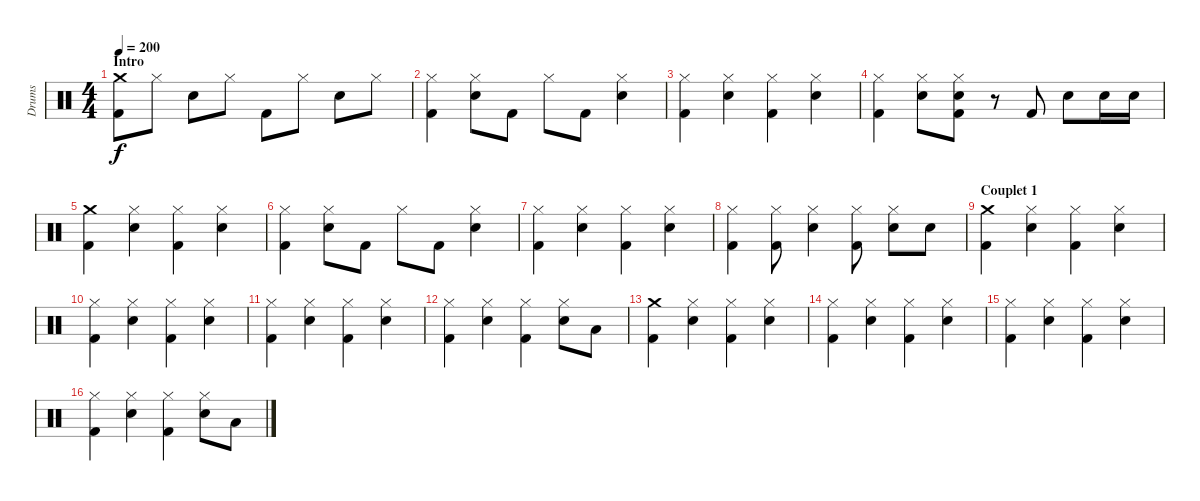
\track ("Drums" "Drums") {instrument percussion}
\staff {score}
\articulation defaults
\ts (4 4)
\section ("" "Intro")
\tempo 200
\clef neutral
\ks c
("Crash medium (hit)" "Kick (hit) 2").8{dy f} "Hi-Hat (closed)".8 "Snare (hit) 2".8 "Hi-Hat (closed)".8 "Kick (hit) 2".8 "Hi-Hat (closed)".8 "Snare (hit) 2".8 "Hi-Hat (closed)".8 |
("Hi-Hat (closed)" "Kick (hit) 2").4 ("Hi-Hat (closed)" "Snare (hit) 2").8 "Kick (hit) 2".8 "Hi-Hat (closed)".8 "Kick (hit) 2".8 ("Hi-Hat (closed)" "Snare (hit) 2").4 |
("Hi-Hat (closed)" "Kick (hit) 2").4 ("Hi-Hat (closed)" "Snare (hit) 2").4 ("Hi-Hat (closed)" "Kick (hit) 2").4 ("Hi-Hat (closed)" "Snare (hit) 2").4 |
("Hi-Hat (closed)" "Kick (hit) 2").4 ("Hi-Hat (closed)" "Snare (hit) 2").8 ("Hi-Hat (closed)" "Snare (hit) 2" "Kick (hit) 2").8 r.8 "Kick (hit) 2".8 "Snare (hit) 2".8 "Snare (hit) 2".16 "Snare (hit) 2".16 |
("Crash medium (hit)" "Kick (hit) 2").4 ("Hi-Hat (closed)" "Snare (hit) 2").4 ("Hi-Hat (closed)" "Kick (hit) 2").4 ("Hi-Hat (closed)" "Snare (hit) 2").4 |
("Hi-Hat (closed)" "Kick (hit) 2").4 ("Hi-Hat (closed)" "Snare (hit) 2").8 "Kick (hit) 2".8 "Hi-Hat (closed)".8 "Kick (hit) 2".8 ("Hi-Hat (closed)" "Snare (hit) 2").4 |
("Hi-Hat (closed)" "Kick (hit) 2").4 ("Hi-Hat (closed)" "Snare (hit) 2").4 ("Hi-Hat (closed)" "Kick (hit) 2").4 ("Hi-Hat (closed)" "Snare (hit) 2").4 |
("Hi-Hat (closed)" "Kick (hit) 2").4 ("Hi-Hat (closed)" "Kick (hit) 2").8 ("Hi-Hat (closed)" "Snare (hit) 2").4 ("Hi-Hat (closed)" "Kick (hit) 2").8 ("Hi-Hat (closed)" "Snare (hit) 2").8 "Snare (hit) 2".8 |
\section ("" "Couplet 1")
("Crash medium (hit)" "Kick (hit) 2").4 ("Hi-Hat (closed)" "Snare (hit) 2").4 ("Hi-Hat (closed)" "Kick (hit) 2").4 ("Hi-Hat (closed)" "Snare (hit) 2").4 |
("Hi-Hat (closed)" "Kick (hit) 2").4 ("Hi-Hat (closed)" "Snare (hit) 2").4 ("Hi-Hat (closed)" "Kick (hit) 2").4 ("Hi-Hat (closed)" "Snare (hit) 2").4 |
("Hi-Hat (closed)" "Kick (hit) 2").4 ("Hi-Hat (closed)" "Snare (hit) 2").4 ("Hi-Hat (closed)" "Kick (hit) 2").4 ("Hi-Hat (closed)" "Snare (hit) 2").4 |
("Hi-Hat (closed)" "Kick (hit) 2").4 ("Hi-Hat (closed)" "Snare (hit) 2").4 ("Hi-Hat (closed)" "Kick (hit) 2").4 ("Hi-Hat (closed)" "Snare (hit) 2").8 "Low Floor Tom (hit)".8 |
("Crash medium (hit)" "Kick (hit) 2").4 ("Hi-Hat (closed)" "Snare (hit) 2").4 ("Hi-Hat (closed)" "Kick (hit) 2").4 ("Hi-Hat (closed)" "Snare (hit) 2").4 |
("Hi-Hat (closed)" "Kick (hit) 2").4 ("Hi-Hat (closed)" "Snare (hit) 2").4 ("Hi-Hat (closed)" "Kick (hit) 2").4 ("Hi-Hat (closed)" "Snare (hit) 2").4 |
("Hi-Hat (closed)" "Kick (hit) 2").4 ("Hi-Hat (closed)" "Snare (hit) 2").4 ("Hi-Hat (closed)" "Kick (hit) 2").4 ("Hi-Hat (closed)" "Snare (hit) 2").4 |
("Hi-Hat (closed)" "Kick (hit) 2").4 ("Hi-Hat (closed)" "Snare (hit) 2").4 ("Hi-Hat (closed)" "Kick (hit) 2").4 ("Hi-Hat (closed)" "Snare (hit) 2").8 "Low Floor Tom (hit)".8
